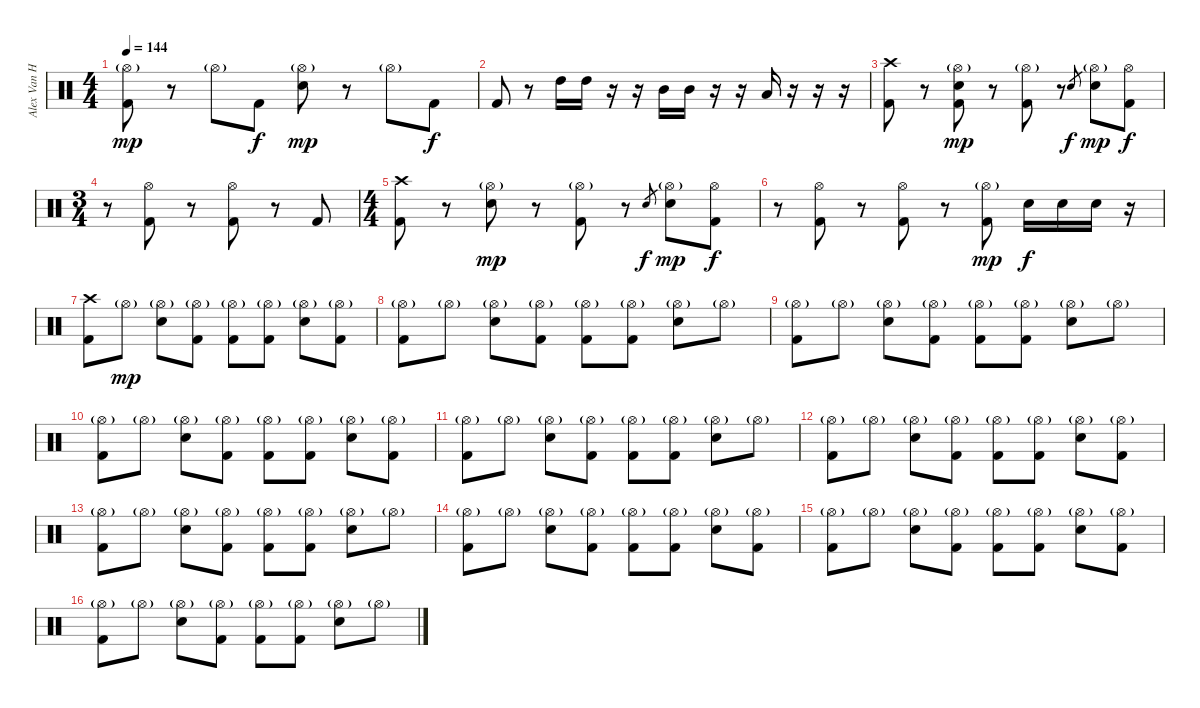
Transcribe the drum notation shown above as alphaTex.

\track ("Alex Van Halen" "Alex Van H") {instrument percussion}
\staff {score}
\articulation defaults
\ts (4 4)
\tempo 144
\clef neutral
\ks c
("Hi-Hat (open)"{g} "Kick (hit) 2").8{dy mp} r.8 "Hi-Hat (open)"{g}.8 "Kick (hit) 2".8{dy f} ("Hi-Hat (open)"{g} "Electric Snare (hit)").8{dy mp} r.8 "Hi-Hat (open)"{g}.8 "Kick (hit) 2".8{dy f} |
"Kick (hit) 2".8 r.8 "High Tom (hit)".16 "High Tom (hit)".16 r.16 r.16 "Mid Tom (hit)".16 "Mid Tom (hit)".16 r.16 r.16 "Low Tom (hit)".16 r.16 r.16 r.16 |
("Crash high (hit)" "Kick (hit) 2").8 r.8 ("Hi-Hat (open)"{g} "Electric Snare (hit)" "Kick (hit) 2").8{dy mp} r.8 ("Hi-Hat (open)"{g} "Kick (hit) 2").8 r.8 "Electric Snare (hit)".8{gr dy f} ("Hi-Hat (open)"{g} "Electric Snare (hit)").8{dy mp} ("Hi-Hat (open)" "Kick (hit) 2").8{dy f} |
\ts (3 4)
r.8 ("Hi-Hat (open)" "Kick (hit) 2").8 r.8 ("Hi-Hat (open)" "Kick (hit) 2").8 r.8 "Kick (hit) 2".8 |
\ts (4 4)
("Crash high (hit)" "Kick (hit) 2").8 r.8 ("Hi-Hat (open)"{g} "Electric Snare (hit)").8{dy mp} r.8 ("Hi-Hat (open)"{g} "Kick (hit) 2").8 r.8 "Electric Snare (hit)".8{gr dy f} ("Hi-Hat (open)"{g} "Electric Snare (hit)").8{dy mp} ("Hi-Hat (open)" "Kick (hit) 2").8{dy f} |
r.8 ("Hi-Hat (open)" "Kick (hit) 2").8 r.8 ("Hi-Hat (open)" "Kick (hit) 2").8 r.8 ("Hi-Hat (open)"{g} "Kick (hit) 2").8{dy mp} "Electric Snare (hit)".16{dy f} "Electric Snare (hit)".16 "Electric Snare (hit)".16 r.16 |
("Crash high (hit)" "Kick (hit) 2").8 "Hi-Hat (open)"{g}.8{dy mp} ("Hi-Hat (open)"{g} "Electric Snare (hit)").8 ("Hi-Hat (open)"{g} "Kick (hit) 2").8 ("Hi-Hat (open)"{g} "Kick (hit) 2").8 ("Hi-Hat (open)"{g} "Kick (hit) 2").8 ("Hi-Hat (open)"{g} "Electric Snare (hit)").8 ("Hi-Hat (open)"{g} "Kick (hit) 2").8 |
("Hi-Hat (open)"{g} "Kick (hit) 2").8 "Hi-Hat (open)"{g}.8 ("Hi-Hat (open)"{g} "Electric Snare (hit)").8 ("Hi-Hat (open)"{g} "Kick (hit) 2").8 ("Hi-Hat (open)"{g} "Kick (hit) 2").8 ("Hi-Hat (open)"{g} "Kick (hit) 2").8 ("Hi-Hat (open)"{g} "Electric Snare (hit)").8 "Hi-Hat (open)"{g}.8 |
("Hi-Hat (open)"{g} "Kick (hit) 2").8 "Hi-Hat (open)"{g}.8 ("Hi-Hat (open)"{g} "Electric Snare (hit)").8 ("Hi-Hat (open)"{g} "Kick (hit) 2").8 ("Hi-Hat (open)"{g} "Kick (hit) 2").8 ("Hi-Hat (open)"{g} "Kick (hit) 2").8 ("Hi-Hat (open)"{g} "Electric Snare (hit)").8 "Hi-Hat (open)"{g}.8 |
("Hi-Hat (open)"{g} "Kick (hit) 2").8 "Hi-Hat (open)"{g}.8 ("Hi-Hat (open)"{g} "Electric Snare (hit)").8 ("Hi-Hat (open)"{g} "Kick (hit) 2").8 ("Hi-Hat (open)"{g} "Kick (hit) 2").8 ("Hi-Hat (open)"{g} "Kick (hit) 2").8 ("Hi-Hat (open)"{g} "Electric Snare (hit)").8 ("Hi-Hat (open)"{g} "Kick (hit) 2").8 |
("Hi-Hat (open)"{g} "Kick (hit) 2").8 "Hi-Hat (open)"{g}.8 ("Hi-Hat (open)"{g} "Electric Snare (hit)").8 ("Hi-Hat (open)"{g} "Kick (hit) 2").8 ("Hi-Hat (open)"{g} "Kick (hit) 2").8 ("Hi-Hat (open)"{g} "Kick (hit) 2").8 ("Hi-Hat (open)"{g} "Electric Snare (hit)").8 "Hi-Hat (open)"{g}.8 |
("Hi-Hat (open)"{g} "Kick (hit) 2").8 "Hi-Hat (open)"{g}.8 ("Hi-Hat (open)"{g} "Electric Snare (hit)").8 ("Hi-Hat (open)"{g} "Kick (hit) 2").8 ("Hi-Hat (open)"{g} "Kick (hit) 2").8 ("Hi-Hat (open)"{g} "Kick (hit) 2").8 ("Hi-Hat (open)"{g} "Electric Snare (hit)").8 ("Hi-Hat (open)"{g} "Kick (hit) 2").8 |
("Hi-Hat (open)"{g} "Kick (hit) 2").8 "Hi-Hat (open)"{g}.8 ("Hi-Hat (open)"{g} "Electric Snare (hit)").8 ("Hi-Hat (open)"{g} "Kick (hit) 2").8 ("Hi-Hat (open)"{g} "Kick (hit) 2").8 ("Hi-Hat (open)"{g} "Kick (hit) 2").8 ("Hi-Hat (open)"{g} "Electric Snare (hit)").8 "Hi-Hat (open)"{g}.8 |
("Hi-Hat (open)"{g} "Kick (hit) 2").8 "Hi-Hat (open)"{g}.8 ("Hi-Hat (open)"{g} "Electric Snare (hit)").8 ("Hi-Hat (open)"{g} "Kick (hit) 2").8 ("Hi-Hat (open)"{g} "Kick (hit) 2").8 ("Hi-Hat (open)"{g} "Kick (hit) 2").8 ("Hi-Hat (open)"{g} "Electric Snare (hit)").8 ("Hi-Hat (open)"{g} "Kick (hit) 2").8 |
("Hi-Hat (open)"{g} "Kick (hit) 2").8 "Hi-Hat (open)"{g}.8 ("Hi-Hat (open)"{g} "Electric Snare (hit)").8 ("Hi-Hat (open)"{g} "Kick (hit) 2").8 ("Hi-Hat (open)"{g} "Kick (hit) 2").8 ("Hi-Hat (open)"{g} "Kick (hit) 2").8 ("Hi-Hat (open)"{g} "Electric Snare (hit)").8 ("Hi-Hat (open)"{g} "Kick (hit) 2").8 |
("Hi-Hat (open)"{g} "Kick (hit) 2").8 "Hi-Hat (open)"{g}.8 ("Hi-Hat (open)"{g} "Electric Snare (hit)").8 ("Hi-Hat (open)"{g} "Kick (hit) 2").8 ("Hi-Hat (open)"{g} "Kick (hit) 2").8 ("Hi-Hat (open)"{g} "Kick (hit) 2").8 ("Hi-Hat (open)"{g} "Electric Snare (hit)").8 "Hi-Hat (open)"{g}.8
